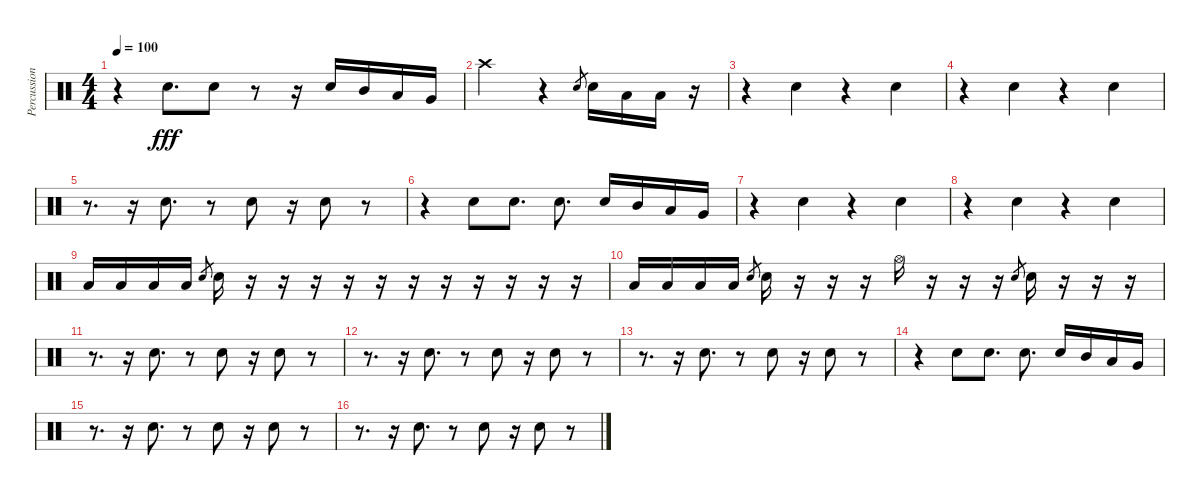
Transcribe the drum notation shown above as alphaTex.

\track ("Percussion" "Percussion") {instrument percussion}
\staff {score}
\articulation defaults
\ts (4 4)
\tempo 100
\clef neutral
\ks c
r.4{dy fff} "Snare (hit) 2".8{d} "Snare (hit) 2".8 r.8 r.16 "Snare (hit) 2".16 "Mid Tom (hit)".16 "Low Tom (hit)".16 "Very Low Tom (hit)".16 |
"Crash high (hit)".2 r.4 "Snare (hit) 2".8{gr} "Snare (hit) 2".16 "Low Tom (hit)".16 "Low Tom (hit)".16 r.16 |
r.4 "Snare (hit) 2".4 r.4 "Snare (hit) 2".4 |
r.4 "Snare (hit) 2".4 r.4 "Snare (hit) 2".4 |
r.8{d} r.16 "Snare (hit) 2".8{d} r.8 "Snare (hit) 2".8 r.16 "Snare (hit) 2".8 r.8 |
r.4 "Snare (hit) 2".8 "Snare (hit) 2".8{d} "Snare (hit) 2".8{d} "Snare (hit) 2".16 "Mid Tom (hit)".16 "Low Tom (hit)".16 "Very Low Tom (hit)".16 |
r.4 "Snare (hit) 2".4 r.4 "Snare (hit) 2".4 |
r.4 "Snare (hit) 2".4 r.4 "Snare (hit) 2".4 |
"Low Floor Tom (hit)".16 "Low Floor Tom (hit)".16 "Low Floor Tom (hit)".16 "Low Floor Tom (hit)".16 "Snare (hit) 2".8{gr} "Snare (hit) 2".16 r.16 r.16 r.16 r.16 r.16 r.16 r.16 r.16 r.16 r.16 r.16 |
"Low Floor Tom (hit)".16 "Low Floor Tom (hit)".16 "Low Floor Tom (hit)".16 "Low Floor Tom (hit)".16 "Snare (hit) 2".8{gr} "Snare (hit) 2".16 r.16 r.16 r.16 "Hi-Hat (open)".16 r.16 r.16 r.16 "Snare (hit) 2".8{gr} "Snare (hit) 2".16 r.16 r.16 r.16 |
r.8{d} r.16 "Snare (hit) 2".8{d} r.8 "Snare (hit) 2".8 r.16 "Snare (hit) 2".8 r.8 |
r.8{d} r.16 "Snare (hit) 2".8{d} r.8 "Snare (hit) 2".8 r.16 "Snare (hit) 2".8 r.8 |
r.8{d} r.16 "Snare (hit) 2".8{d} r.8 "Snare (hit) 2".8 r.16 "Snare (hit) 2".8 r.8 |
r.4 "Snare (hit) 2".8 "Snare (hit) 2".8{d} "Snare (hit) 2".8{d} "Snare (hit) 2".16 "Mid Tom (hit)".16 "Low Tom (hit)".16 "Very Low Tom (hit)".16 |
r.8{d} r.16 "Snare (hit) 2".8{d} r.8 "Snare (hit) 2".8 r.16 "Snare (hit) 2".8 r.8 |
r.8{d} r.16 "Snare (hit) 2".8{d} r.8 "Snare (hit) 2".8 r.16 "Snare (hit) 2".8 r.8
